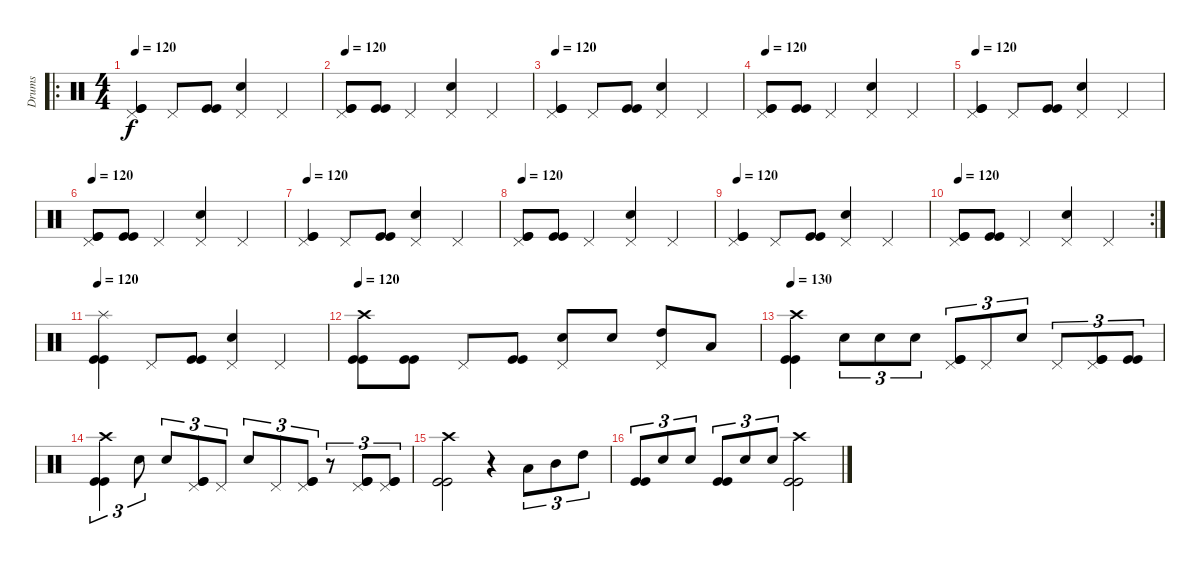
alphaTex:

\track ("Drums" "Drums") {instrument percussion}
\staff {score}
\articulation defaults
\ro
\ts (4 4)
\tempo 120
\clef neutral
\ks c
("Pedal Hi-Hat (hit)" "Kick (hit)" "Kick (hit)").4{dy f} "Pedal Hi-Hat (hit)".8 ("Kick (hit)" "Kick (hit)").8 ("Pedal Hi-Hat (hit)" "Snare (hit) 2").4 "Pedal Hi-Hat (hit)".4 |
\tempo 120
("Pedal Hi-Hat (hit)" "Kick (hit)" "Kick (hit)").8 ("Kick (hit)" "Kick (hit)").8 "Pedal Hi-Hat (hit)".4 ("Pedal Hi-Hat (hit)" "Snare (hit) 2").4 "Pedal Hi-Hat (hit)".4 |
\tempo 120
("Pedal Hi-Hat (hit)" "Kick (hit)" "Kick (hit)").4 "Pedal Hi-Hat (hit)".8 ("Kick (hit)" "Kick (hit)").8 ("Pedal Hi-Hat (hit)" "Snare (hit) 2").4 "Pedal Hi-Hat (hit)".4 |
\tempo 120
("Pedal Hi-Hat (hit)" "Kick (hit)" "Kick (hit)").8 ("Kick (hit)" "Kick (hit)").8 "Pedal Hi-Hat (hit)".4 ("Pedal Hi-Hat (hit)" "Snare (hit) 2").4 "Pedal Hi-Hat (hit)".4 |
\tempo 120
("Pedal Hi-Hat (hit)" "Kick (hit)" "Kick (hit)").4 "Pedal Hi-Hat (hit)".8 ("Kick (hit)" "Kick (hit)").8 ("Pedal Hi-Hat (hit)" "Snare (hit) 2").4 "Pedal Hi-Hat (hit)".4 |
\tempo 120
("Pedal Hi-Hat (hit)" "Kick (hit)" "Kick (hit)").8 ("Kick (hit)" "Kick (hit)").8 "Pedal Hi-Hat (hit)".4 ("Pedal Hi-Hat (hit)" "Snare (hit) 2").4 "Pedal Hi-Hat (hit)".4 |
\tempo 120
("Pedal Hi-Hat (hit)" "Kick (hit)" "Kick (hit)").4 "Pedal Hi-Hat (hit)".8 ("Kick (hit)" "Kick (hit)").8 ("Pedal Hi-Hat (hit)" "Snare (hit) 2").4 "Pedal Hi-Hat (hit)".4 |
\tempo 120
("Pedal Hi-Hat (hit)" "Kick (hit)" "Kick (hit)").8 ("Kick (hit)" "Kick (hit)").8 "Pedal Hi-Hat (hit)".4 ("Pedal Hi-Hat (hit)" "Snare (hit) 2").4 "Pedal Hi-Hat (hit)".4 |
\tempo 120
("Pedal Hi-Hat (hit)" "Kick (hit)" "Kick (hit)").4 "Pedal Hi-Hat (hit)".8 ("Kick (hit)" "Kick (hit)").8 ("Pedal Hi-Hat (hit)" "Snare (hit) 2").4 "Pedal Hi-Hat (hit)".4 |
\rc 2
\tempo 120
("Pedal Hi-Hat (hit)" "Kick (hit)" "Kick (hit)").8 ("Kick (hit)" "Kick (hit)").8 "Pedal Hi-Hat (hit)".4 ("Pedal Hi-Hat (hit)" "Snare (hit) 2").4 "Pedal Hi-Hat (hit)".4 |
\tempo 120
("Splash (hit)" "Kick (hit)" "Kick (hit)").4 "Pedal Hi-Hat (hit)".8 ("Kick (hit)" "Kick (hit)").8 ("Pedal Hi-Hat (hit)" "Snare (hit) 2").4 "Pedal Hi-Hat (hit)".4 |
\tempo 120
("Crash high (hit)" "Kick (hit)" "Kick (hit)").8 ("Kick (hit)" "Kick (hit)").8 "Pedal Hi-Hat (hit)".8 ("Kick (hit)" "Kick (hit)").8 ("Pedal Hi-Hat (hit)" "Snare (hit) 2").8 "Snare (hit) 2".8 ("Pedal Hi-Hat (hit)" "High Tom (hit)").8 "Low Tom (hit)".8 |
\tempo 130
("Crash high (hit)" "Kick (hit)" "Kick (hit)").4 "Snare (hit) 2".8{tu (3 2)} "Snare (hit) 2".8{tu (3 2)} "Snare (hit) 2".8{tu (3 2)} ("Pedal Hi-Hat (hit)" "Kick (hit)" "Kick (hit)").8{tu (3 2)} "Pedal Hi-Hat (hit)".8{tu (3 2)} "Snare (hit) 2".8{tu (3 2)} "Pedal Hi-Hat (hit)".8{tu (3 2)} ("Pedal Hi-Hat (hit)" "Kick (hit)" "Kick (hit)").8{tu (3 2)} ("Kick (hit)" "Kick (hit)").8{tu (3 2)} |
("Crash high (hit)" "Kick (hit)" "Kick (hit)").4{tu (3 2)} "Snare (hit) 2".8{tu (3 2)} "Snare (hit) 2".8{tu (3 2)} ("Pedal Hi-Hat (hit)" "Kick (hit)" "Kick (hit)").8{tu (3 2)} "Pedal Hi-Hat (hit)".8{tu (3 2)} "Snare (hit) 2".8{tu (3 2)} "Pedal Hi-Hat (hit)".8{tu (3 2)} ("Pedal Hi-Hat (hit)" "Kick (hit)" "Kick (hit)").8{tu (3 2)} r.8{tu (3 2)} ("Pedal Hi-Hat (hit)" "Kick (hit)" "Kick (hit)").8{tu (3 2)} ("Pedal Hi-Hat (hit)" "Kick (hit)" "Kick (hit)").8{tu (3 2)} |
("Crash high (hit)" "Kick (hit)" "Kick (hit)").2 r.4 "Low Tom (hit)".8{tu (3 2)} "Mid Tom (hit)".8{tu (3 2)} "High Tom (hit)".8{tu (3 2)} |
("Kick (hit)" "Kick (hit)").8{tu (3 2)} "Snare (hit) 2".8{tu (3 2)} "Snare (hit) 2".8{tu (3 2)} ("Kick (hit)" "Kick (hit)").8{tu (3 2)} "Snare (hit) 2".8{tu (3 2)} "Snare (hit) 2".8{tu (3 2)} ("Crash high (hit)" "Kick (hit)" "Kick (hit)").2
